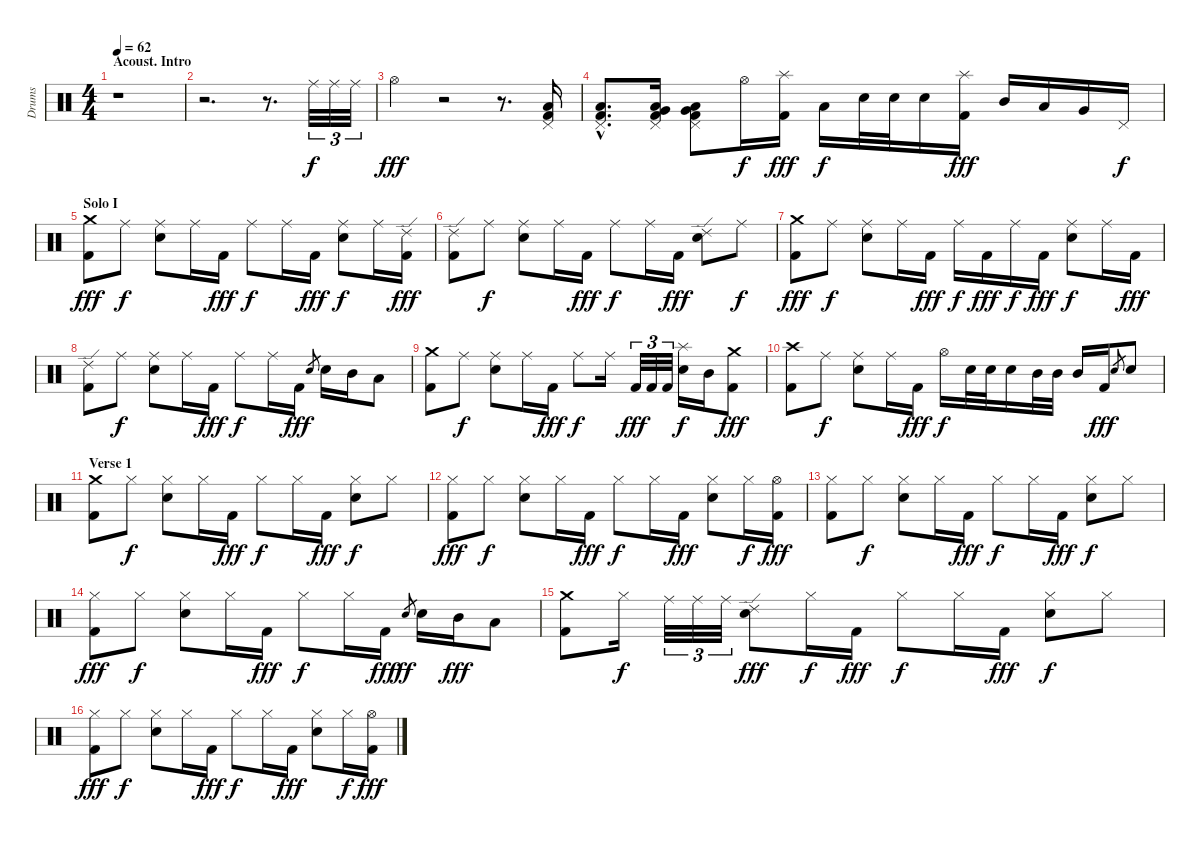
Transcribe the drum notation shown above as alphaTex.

\track ("Drums" "Drums") {instrument percussion}
\staff {score}
\articulation defaults
\ts (4 4)
\section ("" "Acoust. Intro")
\tempo 62
\clef neutral
\ks c
r.1{dy f} |
r.2{d} r.8{d} "Ride (middle)".32{tu (3 2)} "Ride (middle)".32{tu (3 2)} "Ride (middle)".32{tu (3 2)} |
"Hi-Hat (open)".4{dy fff} r.2 r.8{d} ("Pedal Hi-Hat (hit)" "Low Tom (hit)" "Kick (hit) 2").16 |
("Pedal Hi-Hat (hit)"{hac} "Low Tom (hit)"{hac} "Kick (hit) 2"{hac}).8{d} ("Pedal Hi-Hat (hit)" "Very Low Tom (hit)" "Low Tom (hit)" "Kick (hit) 2").16 ("Pedal Hi-Hat (hit)" "Very Low Tom (hit)" "Low Tom (hit)" "Kick (hit) 2").8 "Hi-Hat (open)".16{dy f} ("Splash (hit)" "Kick (hit) 2").16{dy fff} "Low Tom (hit)".16{dy f} "Electric Snare (hit)".32 "Electric Snare (hit)".32 "Electric Snare (hit)".16 ("Splash (hit)" "Kick (hit) 2").16{dy fff} "Mid Tom (hit)".16 "Low Tom (hit)".16 "Very Low Tom (hit)".16 "Pedal Hi-Hat (hit)".16{dy f} |
\section ("" "Solo I")
("Crash medium (hit)" "Kick (hit) 2").8{dy fff} "Ride (middle)".8{dy f} ("Ride (middle)" "Electric Snare (hit)").8 "Ride (middle)".16 "Kick (hit) 2".16{dy fff} "Ride (middle)".8{dy f} "Ride (middle)".16 "Kick (hit) 2".16{dy fff} ("Ride (middle)" "Electric Snare (hit)").8{dy f} "Ride (middle)".16 ("Ride (edge) 2" "Kick (hit) 2").16{dy fff} |
("Ride (edge) 2" "Kick (hit) 2").8 "Ride (middle)".8{dy f} ("Ride (middle)" "Electric Snare (hit)").8 "Ride (middle)".16 "Kick (hit) 2".16{dy fff} "Ride (middle)".8{dy f} "Ride (middle)".16 "Kick (hit) 2".16{dy fff} ("Ride (edge) 2" "Electric Snare (hit)").8 "Ride (middle)".8{dy f} |
("Crash medium (hit)" "Kick (hit) 2").8{dy fff} "Ride (middle)".8{dy f} ("Ride (middle)" "Electric Snare (hit)").8 "Ride (middle)".16 "Kick (hit) 2".16{dy fff} "Ride (middle)".16{dy f} "Kick (hit) 2".16{dy fff} "Ride (middle)".16{dy f} "Kick (hit) 2".16{dy fff} ("Ride (middle)" "Electric Snare (hit)").8{dy f} "Ride (middle)".16 "Kick (hit) 2".16{dy fff} |
("Ride (edge) 2" "Kick (hit) 2").8 "Ride (middle)".8{dy f} ("Ride (middle)" "Electric Snare (hit)").8 "Ride (middle)".16 "Kick (hit) 2".16{dy fff} "Ride (middle)".8{dy f} "Ride (middle)".16 "Kick (hit) 2".16{dy fff} "Electric Snare (hit)".8{gr} "Electric Snare (hit)".16 "Mid Tom (hit)".16 "Low Tom (hit)".8 |
("Crash medium (hit)" "Kick (hit) 2").8 "Ride (middle)".8{dy f} ("Ride (middle)" "Electric Snare (hit)").8 "Ride (middle)".16 "Kick (hit) 2".16{dy fff} "Ride (middle)".8{dy f} "Ride (middle)".16 "Kick (hit) 2".32{tu (3 2) dy fff} "Kick (hit) 2".32{tu (3 2)} "Kick (hit) 2".32{tu (3 2)} ("Splash (hit)" "Electric Snare (hit)").16{dy f} "Mid Tom (hit)".16 ("Crash medium (hit)" "Kick (hit) 2").8{dy fff} |
("Crash high (hit)" "Kick (hit) 2").8 "Ride (middle)".8{dy f} ("Ride (middle)" "Electric Snare (hit)").8 "Ride (middle)".16 "Kick (hit) 2".16{dy fff} "Hi-Hat (open)".16{dy f} "Electric Snare (hit)".32 "Electric Snare (hit)".32 "Electric Snare (hit)".16 "Mid Tom (hit)".32 "Mid Tom (hit)".32 "Mid Tom (hit)".16 "Kick (hit) 2".16{dy fff} "Electric Snare (hit)".8{gr} "Electric Snare (hit)".8 |
\section ("" "Verse 1")
("Crash medium (hit)" "Kick (hit) 2").8 "Hi-Hat (closed)".8{dy f} ("Hi-Hat (closed)" "Electric Snare (hit)").8 "Hi-Hat (closed)".16 "Kick (hit) 2".16{dy fff} "Hi-Hat (closed)".8{dy f} "Hi-Hat (closed)".16 "Kick (hit) 2".16{dy fff} ("Hi-Hat (closed)" "Electric Snare (hit)").8{dy f} "Hi-Hat (closed)".8 |
("Hi-Hat (closed)" "Kick (hit) 2").8{dy fff} "Hi-Hat (closed)".8{dy f} ("Hi-Hat (closed)" "Electric Snare (hit)").8 "Hi-Hat (closed)".16 "Kick (hit) 2".16{dy fff} "Hi-Hat (closed)".8{dy f} "Hi-Hat (closed)".16 "Kick (hit) 2".16{dy fff} ("Hi-Hat (closed)" "Electric Snare (hit)").8 "Hi-Hat (closed)".16{dy f} ("Hi-Hat (open)" "Kick (hit) 2").16{dy fff} |
("Hi-Hat (closed)" "Kick (hit) 2").8 "Hi-Hat (closed)".8{dy f} ("Hi-Hat (closed)" "Electric Snare (hit)").8 "Hi-Hat (closed)".16 "Kick (hit) 2".16{dy fff} "Hi-Hat (closed)".8{dy f} "Hi-Hat (closed)".16 "Kick (hit) 2".16{dy fff} ("Hi-Hat (closed)" "Electric Snare (hit)").8{dy f} "Hi-Hat (closed)".8 |
("Hi-Hat (closed)" "Kick (hit) 2").8{dy fff} "Hi-Hat (closed)".8{dy f} ("Hi-Hat (closed)" "Electric Snare (hit)").8 "Hi-Hat (closed)".16 "Kick (hit) 2".16{dy fff} "Hi-Hat (closed)".8{dy f} "Hi-Hat (closed)".16 "Kick (hit) 2".16{dy fff} "Electric Snare (hit)".8{gr dy ff} "Electric Snare (hit)".16 "Mid Tom (hit)".16{dy fff} "Low Tom (hit)".8 |
("Crash medium (hit)" "Kick (hit) 2").8 "Hi-Hat (closed)".16{dy f} "Ride (middle)".32{tu (3 2)} "Ride (middle)".32{tu (3 2)} "Ride (middle)".32{tu (3 2)} ("Ride (edge) 2" "Electric Snare (hit)").8{dy fff} "Hi-Hat (closed)".16{dy f} "Kick (hit) 2".16{dy fff} "Hi-Hat (closed)".8{dy f} "Hi-Hat (closed)".16 "Kick (hit) 2".16{dy fff} ("Hi-Hat (closed)" "Electric Snare (hit)").8{dy f} "Hi-Hat (closed)".8 |
("Hi-Hat (closed)" "Kick (hit) 2").8{dy fff} "Hi-Hat (closed)".8{dy f} ("Hi-Hat (closed)" "Electric Snare (hit)").8 "Hi-Hat (closed)".16 "Kick (hit) 2".16{dy fff} "Hi-Hat (closed)".8{dy f} "Hi-Hat (closed)".16 "Kick (hit) 2".16{dy fff} ("Hi-Hat (closed)" "Electric Snare (hit)").8 "Hi-Hat (closed)".16{dy f} ("Hi-Hat (open)" "Kick (hit) 2").16{dy fff}
